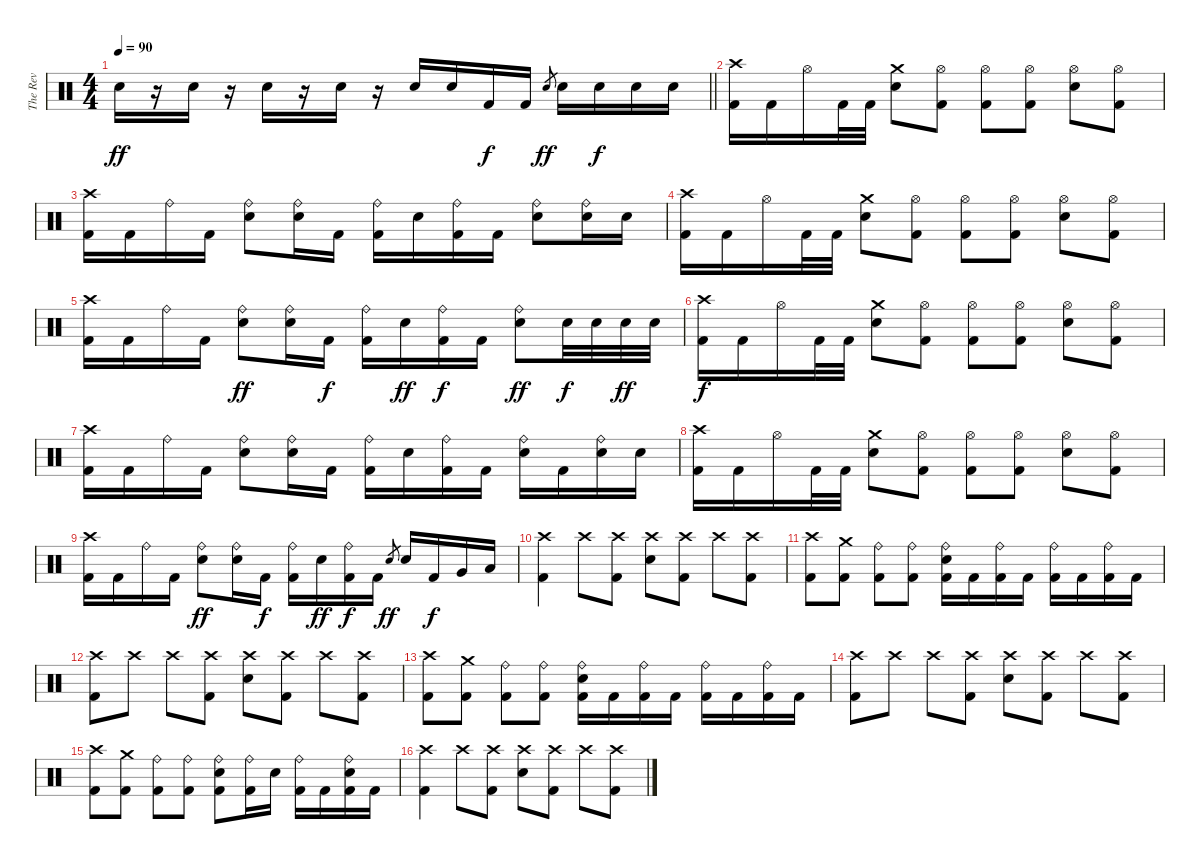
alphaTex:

\track ("The Rev" "The Rev") {instrument percussion}
\staff {score}
\articulation defaults
\ts (4 4)
\tempo 90
\clef neutral
\barLineRight lightlight
\ks c "Electric Snare (hit)".16{dy ff}
r.16 "Electric Snare (hit)".16 r.16 "Electric Snare (hit)".16 r.16 "Electric Snare (hit)".16 r.16 "Electric Snare (hit)".16 "Electric Snare (hit)".16 "Kick (hit) 2".16{dy f} "Kick (hit) 2".16 "Electric Snare (hit)".8{gr dy ff} "Electric Snare (hit)".16 "Electric Snare (hit)".16{dy f} "Electric Snare (hit)".16 "Electric Snare (hit)".16 |
("Crash high (hit)" "Kick (hit) 2").16 "Kick (hit) 2".16 "Hi-Hat (open)".16 "Kick (hit) 2".32 "Kick (hit) 2".32 ("Crash medium (hit)" "Electric Snare (hit)").8 ("Hi-Hat (open)" "Kick (hit) 2").8 ("Hi-Hat (open)" "Kick (hit) 2").8 ("Hi-Hat (open)" "Kick (hit) 2").8 ("Hi-Hat (open)" "Electric Snare (hit)").8 ("Hi-Hat (open)" "Kick (hit) 2").8 |
("Crash high (hit)" "Kick (hit) 2").16 "Kick (hit) 2".16 "Ride (bell)".16 "Kick (hit) 2".16 ("Ride (bell)" "Electric Snare (hit)").8 ("Ride (bell)" "Electric Snare (hit)").16 "Kick (hit) 2".16 ("Ride (bell)" "Kick (hit) 2").16 "Electric Snare (hit)".16 ("Ride (bell)" "Kick (hit) 2").16 "Kick (hit) 2".16 ("Ride (bell)" "Electric Snare (hit)").8 ("Ride (bell)" "Electric Snare (hit)").16 "Electric Snare (hit)".16 |
("Crash high (hit)" "Kick (hit) 2").16 "Kick (hit) 2".16 "Hi-Hat (open)".16 "Kick (hit) 2".32 "Kick (hit) 2".32 ("Crash medium (hit)" "Electric Snare (hit)").8 ("Hi-Hat (open)" "Kick (hit) 2").8 ("Hi-Hat (open)" "Kick (hit) 2").8 ("Hi-Hat (open)" "Kick (hit) 2").8 ("Hi-Hat (open)" "Electric Snare (hit)").8 ("Hi-Hat (open)" "Kick (hit) 2").8 |
("Crash high (hit)" "Kick (hit) 2").16 "Kick (hit) 2".16 "Ride (bell)".16 "Kick (hit) 2".16 ("Ride (bell)" "Electric Snare (hit)").8{dy ff} ("Ride (bell)" "Electric Snare (hit)").16 "Kick (hit) 2".16{dy f} ("Ride (bell)" "Kick (hit) 2").16 "Electric Snare (hit)".16{dy ff} ("Ride (bell)" "Kick (hit) 2").16{dy f} "Kick (hit) 2".16 ("Ride (bell)" "Electric Snare (hit)").8{dy ff} "Electric Snare (hit)".32{dy f} "Electric Snare (hit)".32 "Electric Snare (hit)".32{dy ff} "Electric Snare (hit)".32 |
("Crash high (hit)" "Kick (hit) 2").16{dy f} "Kick (hit) 2".16 "Hi-Hat (open)".16 "Kick (hit) 2".32 "Kick (hit) 2".32 ("Crash medium (hit)" "Electric Snare (hit)").8 ("Hi-Hat (open)" "Kick (hit) 2").8 ("Hi-Hat (open)" "Kick (hit) 2").8 ("Hi-Hat (open)" "Kick (hit) 2").8 ("Hi-Hat (open)" "Electric Snare (hit)").8 ("Hi-Hat (open)" "Kick (hit) 2").8 |
("Crash high (hit)" "Kick (hit) 2").16 "Kick (hit) 2".16 "Ride (bell)".16 "Kick (hit) 2".16 ("Ride (bell)" "Electric Snare (hit)").8 ("Ride (bell)" "Electric Snare (hit)").16 "Kick (hit) 2".16 ("Ride (bell)" "Kick (hit) 2").16 "Electric Snare (hit)".16 ("Ride (bell)" "Kick (hit) 2").16 "Kick (hit) 2".16 ("Ride (bell)" "Electric Snare (hit)").16 "Kick (hit) 2".16 ("Ride (bell)" "Electric Snare (hit)").16 "Electric Snare (hit)".16 |
("Crash high (hit)" "Kick (hit) 2").16 "Kick (hit) 2".16 "Hi-Hat (open)".16 "Kick (hit) 2".32 "Kick (hit) 2".32 ("Crash medium (hit)" "Electric Snare (hit)").8 ("Hi-Hat (open)" "Kick (hit) 2").8 ("Hi-Hat (open)" "Kick (hit) 2").8 ("Hi-Hat (open)" "Kick (hit) 2").8 ("Hi-Hat (open)" "Electric Snare (hit)").8 ("Hi-Hat (open)" "Kick (hit) 2").8 |
("Crash high (hit)" "Kick (hit) 2").16 "Kick (hit) 2".16 "Ride (bell)".16 "Kick (hit) 2".16 ("Ride (bell)" "Electric Snare (hit)").8{dy ff} ("Ride (bell)" "Electric Snare (hit)").16 "Kick (hit) 2".16{dy f} ("Ride (bell)" "Kick (hit) 2").16 "Electric Snare (hit)".16{dy ff} ("Ride (bell)" "Kick (hit) 2").16{dy f} "Kick (hit) 2".16 "Electric Snare (hit)".8{gr dy ff} "Electric Snare (hit)".16 "Kick (hit) 2".16{dy f} "Very Low Tom (hit)".16 "Low Floor Tom (hit)".16 |
("Crash high (hit)" "Kick (hit) 2").4 "Crash high (hit)".8 ("Crash high (hit)" "Kick (hit) 2").8 ("Crash high (hit)" "Electric Snare (hit)").8 ("Crash high (hit)" "Kick (hit) 2").8 "Crash high (hit)".8 ("Crash high (hit)" "Kick (hit) 2").8 |
("Crash high (hit)" "Kick (hit) 2").8 ("Crash medium (hit)" "Kick (hit) 2").8 ("Ride (bell)" "Kick (hit) 2").8 ("Ride (bell)" "Kick (hit) 2").8 ("Ride (bell)" "Electric Snare (hit)" "Kick (hit) 2").16 "Kick (hit) 2".16 ("Ride (bell)" "Kick (hit) 2").16 "Kick (hit) 2".16 ("Ride (bell)" "Kick (hit) 2").16 "Kick (hit) 2".16 ("Ride (bell)" "Kick (hit) 2").16 "Kick (hit) 2".16 |
("Crash high (hit)" "Kick (hit) 2").8 "Crash high (hit)".8 "Crash high (hit)".8 ("Crash high (hit)" "Kick (hit) 2").8 ("Crash high (hit)" "Electric Snare (hit)").8 ("Crash high (hit)" "Kick (hit) 2").8 "Crash high (hit)".8 ("Crash high (hit)" "Kick (hit) 2").8 |
("Crash high (hit)" "Kick (hit) 2").8 ("Crash medium (hit)" "Kick (hit) 2").8 ("Ride (bell)" "Kick (hit) 2").8 ("Ride (bell)" "Kick (hit) 2").8 ("Ride (bell)" "Electric Snare (hit)" "Kick (hit) 2").16 "Kick (hit) 2".16 ("Ride (bell)" "Kick (hit) 2").16 "Kick (hit) 2".16 ("Ride (bell)" "Kick (hit) 2").16 "Kick (hit) 2".16 ("Ride (bell)" "Kick (hit) 2").16 "Kick (hit) 2".16 |
("Crash high (hit)" "Kick (hit) 2").8 "Crash high (hit)".8 "Crash high (hit)".8 ("Crash high (hit)" "Kick (hit) 2").8 ("Crash high (hit)" "Electric Snare (hit)").8 ("Crash high (hit)" "Kick (hit) 2").8 "Crash high (hit)".8 ("Crash high (hit)" "Kick (hit) 2").8 |
("Crash high (hit)" "Kick (hit) 2").8 ("Crash medium (hit)" "Kick (hit) 2").8 ("Ride (bell)" "Kick (hit) 2").8 ("Ride (bell)" "Kick (hit) 2").8 ("Ride (bell)" "Electric Snare (hit)" "Kick (hit) 2").8 ("Ride (bell)" "Kick (hit) 2").16 "Electric Snare (hit)".16 ("Ride (bell)" "Kick (hit) 2").16 "Kick (hit) 2".16 ("Ride (bell)" "Electric Snare (hit)" "Kick (hit) 2").16 "Kick (hit) 2".16 |
("Crash high (hit)" "Kick (hit) 2").4 "Crash high (hit)".8 ("Crash high (hit)" "Kick (hit) 2").8 ("Crash high (hit)" "Electric Snare (hit)").8 ("Crash high (hit)" "Kick (hit) 2").8 "Crash high (hit)".8 ("Crash high (hit)" "Kick (hit) 2").8
